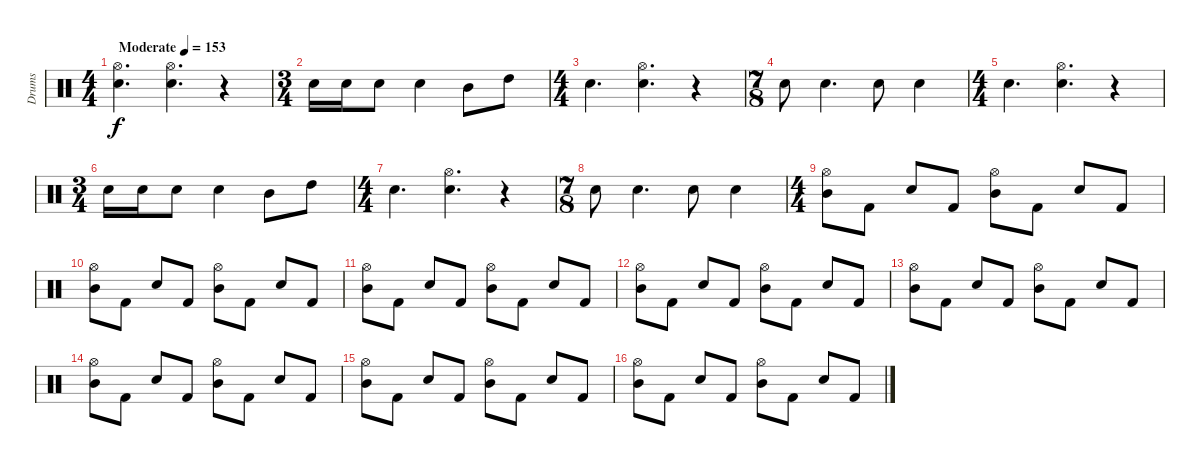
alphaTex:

\track ("Drums" "Drums") {instrument percussion}
\staff {score}
\articulation defaults
\ts (4 4)
\tempo (153 "Moderate")
\clef neutral
\ks c
("Hi-Hat (open)" "Electric Snare (hit)").4{d dy f} ("Electric Snare (hit)" "Hi-Hat (open)").4{d} r.4 |
\ts (3 4)
"Electric Snare (hit)".16 "Electric Snare (hit)".16 "Electric Snare (hit)".8 "Electric Snare (hit)".4 "Mid Tom (hit)".8 "High Tom (hit)".8 |
\ts (4 4)
"Electric Snare (hit)".4{d} ("Electric Snare (hit)" "Hi-Hat (open)").4{d} r.4 |
\ts (7 8)
"Electric Snare (hit)".8 "Electric Snare (hit)".4{d} "Electric Snare (hit)".8 "Electric Snare (hit)".4 |
\ts (4 4)
"Electric Snare (hit)".4{d} ("Electric Snare (hit)" "Hi-Hat (open)").4{d} r.4 |
\ts (3 4)
"Electric Snare (hit)".16 "Electric Snare (hit)".16 "Electric Snare (hit)".8 "Electric Snare (hit)".4 "Mid Tom (hit)".8 "High Tom (hit)".8 |
\ts (4 4)
"Electric Snare (hit)".4{d} ("Electric Snare (hit)" "Hi-Hat (open)").4{d} r.4 |
\ts (7 8)
"Electric Snare (hit)".8 "Electric Snare (hit)".4{d} "Electric Snare (hit)".8 "Electric Snare (hit)".4 |
\ts (4 4)
("Hi-Hat (open)" "Mid Tom (hit)").8 "Kick (hit) 2".8 "Electric Snare (hit)".8 "Kick (hit) 2".8 ("Hi-Hat (open)" "Mid Tom (hit)").8 "Kick (hit) 2".8 "Electric Snare (hit)".8 "Kick (hit) 2".8 |
("Hi-Hat (open)" "Mid Tom (hit)").8 "Kick (hit) 2".8 "Electric Snare (hit)".8 "Kick (hit) 2".8 ("Hi-Hat (open)" "Mid Tom (hit)").8 "Kick (hit) 2".8 "Electric Snare (hit)".8 "Kick (hit) 2".8 |
("Hi-Hat (open)" "Mid Tom (hit)").8 "Kick (hit) 2".8 "Electric Snare (hit)".8 "Kick (hit) 2".8 ("Hi-Hat (open)" "Mid Tom (hit)").8 "Kick (hit) 2".8 "Electric Snare (hit)".8 "Kick (hit) 2".8 |
("Hi-Hat (open)" "Mid Tom (hit)").8 "Kick (hit) 2".8 "Electric Snare (hit)".8 "Kick (hit) 2".8 ("Hi-Hat (open)" "Mid Tom (hit)").8 "Kick (hit) 2".8 "Electric Snare (hit)".8 "Kick (hit) 2".8 |
("Hi-Hat (open)" "Mid Tom (hit)").8 "Kick (hit) 2".8 "Electric Snare (hit)".8 "Kick (hit) 2".8 ("Hi-Hat (open)" "Mid Tom (hit)").8 "Kick (hit) 2".8 "Electric Snare (hit)".8 "Kick (hit) 2".8 |
("Hi-Hat (open)" "Mid Tom (hit)").8 "Kick (hit) 2".8 "Electric Snare (hit)".8 "Kick (hit) 2".8 ("Hi-Hat (open)" "Mid Tom (hit)").8 "Kick (hit) 2".8 "Electric Snare (hit)".8 "Kick (hit) 2".8 |
("Hi-Hat (open)" "Mid Tom (hit)").8 "Kick (hit) 2".8 "Electric Snare (hit)".8 "Kick (hit) 2".8 ("Hi-Hat (open)" "Mid Tom (hit)").8 "Kick (hit) 2".8 "Electric Snare (hit)".8 "Kick (hit) 2".8 |
("Hi-Hat (open)" "Mid Tom (hit)").8 "Kick (hit) 2".8 "Electric Snare (hit)".8 "Kick (hit) 2".8 ("Hi-Hat (open)" "Mid Tom (hit)").8 "Kick (hit) 2".8 "Electric Snare (hit)".8 "Kick (hit) 2".8
